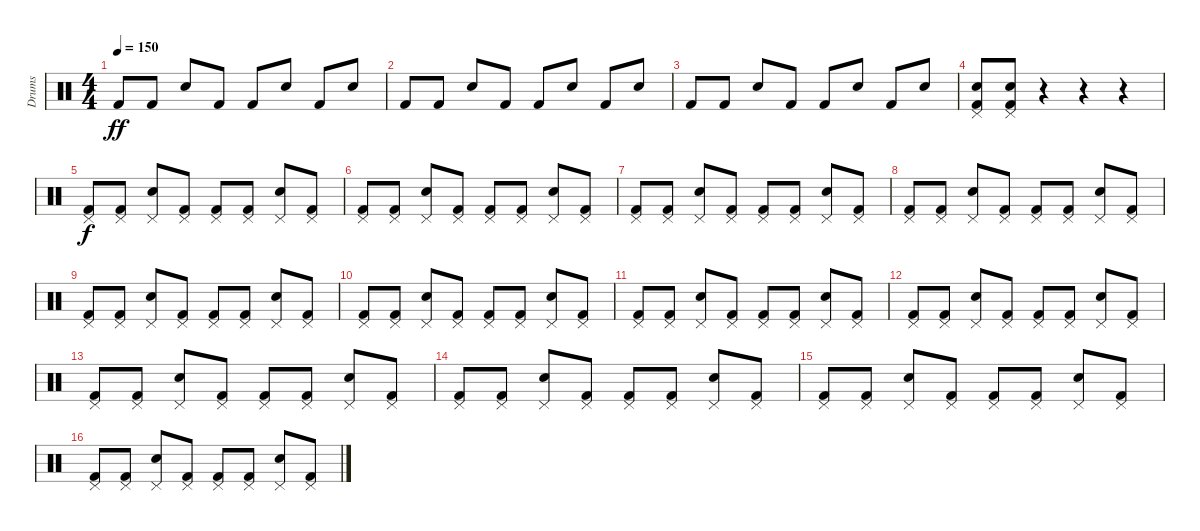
\track ("Drums" "Drums") {instrument percussion}
\staff
\articulation defaults
\ts (4 4)
\tempo 150
\clef neutral
\ks c "Kick (hit) 2".8{dy ff} "Kick (hit) 2".8 "Snare (hit) 2".8 "Kick (hit) 2".8 "Kick (hit) 2".8 "Snare (hit) 2".8 "Kick (hit) 2".8 "Snare (hit) 2".8
|
"Kick (hit) 2".8 "Kick (hit) 2".8 "Snare (hit) 2".8 "Kick (hit) 2".8 "Kick (hit) 2".8 "Snare (hit) 2".8 "Kick (hit) 2".8 "Snare (hit) 2".8 |
"Kick (hit) 2".8 "Kick (hit) 2".8 "Snare (hit) 2".8 "Kick (hit) 2".8 "Kick (hit) 2".8 "Snare (hit) 2".8 "Kick (hit) 2".8 "Snare (hit) 2".8 |
("Pedal Hi-Hat (hit)" "Snare (hit) 2" "Kick (hit) 2").8 ("Pedal Hi-Hat (hit)" "Snare (hit) 2" "Kick (hit) 2").8 r.4 r.4 r.4 |
("Pedal Hi-Hat (hit)" "Kick (hit) 2").8{dy f} ("Pedal Hi-Hat (hit)" "Kick (hit) 2").8 ("Pedal Hi-Hat (hit)" "Snare (hit) 2").8 ("Pedal Hi-Hat (hit)" "Kick (hit) 2").8 ("Pedal Hi-Hat (hit)" "Kick (hit) 2").8 ("Pedal Hi-Hat (hit)" "Kick (hit) 2").8 ("Pedal Hi-Hat (hit)" "Snare (hit) 2").8 ("Pedal Hi-Hat (hit)" "Kick (hit) 2").8 |
("Pedal Hi-Hat (hit)" "Kick (hit) 2").8 ("Pedal Hi-Hat (hit)" "Kick (hit) 2").8 ("Pedal Hi-Hat (hit)" "Snare (hit) 2").8 ("Pedal Hi-Hat (hit)" "Kick (hit) 2").8 ("Pedal Hi-Hat (hit)" "Kick (hit) 2").8 ("Pedal Hi-Hat (hit)" "Kick (hit) 2").8 ("Pedal Hi-Hat (hit)" "Snare (hit) 2").8 ("Pedal Hi-Hat (hit)" "Kick (hit) 2").8 |
("Pedal Hi-Hat (hit)" "Kick (hit) 2").8 ("Pedal Hi-Hat (hit)" "Kick (hit) 2").8 ("Pedal Hi-Hat (hit)" "Snare (hit) 2").8 ("Pedal Hi-Hat (hit)" "Kick (hit) 2").8 ("Pedal Hi-Hat (hit)" "Kick (hit) 2").8 ("Pedal Hi-Hat (hit)" "Kick (hit) 2").8 ("Pedal Hi-Hat (hit)" "Snare (hit) 2").8 ("Pedal Hi-Hat (hit)" "Kick (hit) 2").8 |
("Pedal Hi-Hat (hit)" "Kick (hit) 2").8 ("Pedal Hi-Hat (hit)" "Kick (hit) 2").8 ("Pedal Hi-Hat (hit)" "Snare (hit) 2").8 ("Pedal Hi-Hat (hit)" "Kick (hit) 2").8 ("Pedal Hi-Hat (hit)" "Kick (hit) 2").8 ("Pedal Hi-Hat (hit)" "Kick (hit) 2").8 ("Pedal Hi-Hat (hit)" "Snare (hit) 2").8 ("Pedal Hi-Hat (hit)" "Kick (hit) 2").8 |
("Pedal Hi-Hat (hit)" "Kick (hit) 2").8 ("Pedal Hi-Hat (hit)" "Kick (hit) 2").8 ("Pedal Hi-Hat (hit)" "Snare (hit) 2").8 ("Pedal Hi-Hat (hit)" "Kick (hit) 2").8 ("Pedal Hi-Hat (hit)" "Kick (hit) 2").8 ("Pedal Hi-Hat (hit)" "Kick (hit) 2").8 ("Pedal Hi-Hat (hit)" "Snare (hit) 2").8 ("Pedal Hi-Hat (hit)" "Kick (hit) 2").8 |
("Pedal Hi-Hat (hit)" "Kick (hit) 2").8 ("Pedal Hi-Hat (hit)" "Kick (hit) 2").8 ("Pedal Hi-Hat (hit)" "Snare (hit) 2").8 ("Pedal Hi-Hat (hit)" "Kick (hit) 2").8 ("Pedal Hi-Hat (hit)" "Kick (hit) 2").8 ("Pedal Hi-Hat (hit)" "Kick (hit) 2").8 ("Pedal Hi-Hat (hit)" "Snare (hit) 2").8 ("Pedal Hi-Hat (hit)" "Kick (hit) 2").8 |
("Pedal Hi-Hat (hit)" "Kick (hit) 2").8 ("Pedal Hi-Hat (hit)" "Kick (hit) 2").8 ("Pedal Hi-Hat (hit)" "Snare (hit) 2").8 ("Pedal Hi-Hat (hit)" "Kick (hit) 2").8 ("Pedal Hi-Hat (hit)" "Kick (hit) 2").8 ("Pedal Hi-Hat (hit)" "Kick (hit) 2").8 ("Pedal Hi-Hat (hit)" "Snare (hit) 2").8 ("Pedal Hi-Hat (hit)" "Kick (hit) 2").8 |
("Pedal Hi-Hat (hit)" "Kick (hit) 2").8 ("Pedal Hi-Hat (hit)" "Kick (hit) 2").8 ("Pedal Hi-Hat (hit)" "Snare (hit) 2").8 ("Pedal Hi-Hat (hit)" "Kick (hit) 2").8 ("Pedal Hi-Hat (hit)" "Kick (hit) 2").8 ("Pedal Hi-Hat (hit)" "Kick (hit) 2").8 ("Pedal Hi-Hat (hit)" "Snare (hit) 2").8 ("Pedal Hi-Hat (hit)" "Kick (hit) 2").8 |
("Pedal Hi-Hat (hit)" "Kick (hit) 2").8 ("Pedal Hi-Hat (hit)" "Kick (hit) 2").8 ("Pedal Hi-Hat (hit)" "Snare (hit) 2").8 ("Pedal Hi-Hat (hit)" "Kick (hit) 2").8 ("Pedal Hi-Hat (hit)" "Kick (hit) 2").8 ("Pedal Hi-Hat (hit)" "Kick (hit) 2").8 ("Pedal Hi-Hat (hit)" "Snare (hit) 2").8 ("Pedal Hi-Hat (hit)" "Kick (hit) 2").8 |
("Pedal Hi-Hat (hit)" "Kick (hit) 2").8 ("Pedal Hi-Hat (hit)" "Kick (hit) 2").8 ("Pedal Hi-Hat (hit)" "Snare (hit) 2").8 ("Pedal Hi-Hat (hit)" "Kick (hit) 2").8 ("Pedal Hi-Hat (hit)" "Kick (hit) 2").8 ("Pedal Hi-Hat (hit)" "Kick (hit) 2").8 ("Pedal Hi-Hat (hit)" "Snare (hit) 2").8 ("Pedal Hi-Hat (hit)" "Kick (hit) 2").8 |
("Pedal Hi-Hat (hit)" "Kick (hit) 2").8 ("Pedal Hi-Hat (hit)" "Kick (hit) 2").8 ("Pedal Hi-Hat (hit)" "Snare (hit) 2").8 ("Pedal Hi-Hat (hit)" "Kick (hit) 2").8 ("Pedal Hi-Hat (hit)" "Kick (hit) 2").8 ("Pedal Hi-Hat (hit)" "Kick (hit) 2").8 ("Pedal Hi-Hat (hit)" "Snare (hit) 2").8 ("Pedal Hi-Hat (hit)" "Kick (hit) 2").8 |
("Pedal Hi-Hat (hit)" "Kick (hit) 2").8 ("Pedal Hi-Hat (hit)" "Kick (hit) 2").8 ("Pedal Hi-Hat (hit)" "Snare (hit) 2").8 ("Pedal Hi-Hat (hit)" "Kick (hit) 2").8 ("Pedal Hi-Hat (hit)" "Kick (hit) 2").8 ("Pedal Hi-Hat (hit)" "Kick (hit) 2").8 ("Pedal Hi-Hat (hit)" "Snare (hit) 2").8 ("Pedal Hi-Hat (hit)" "Kick (hit) 2").8
